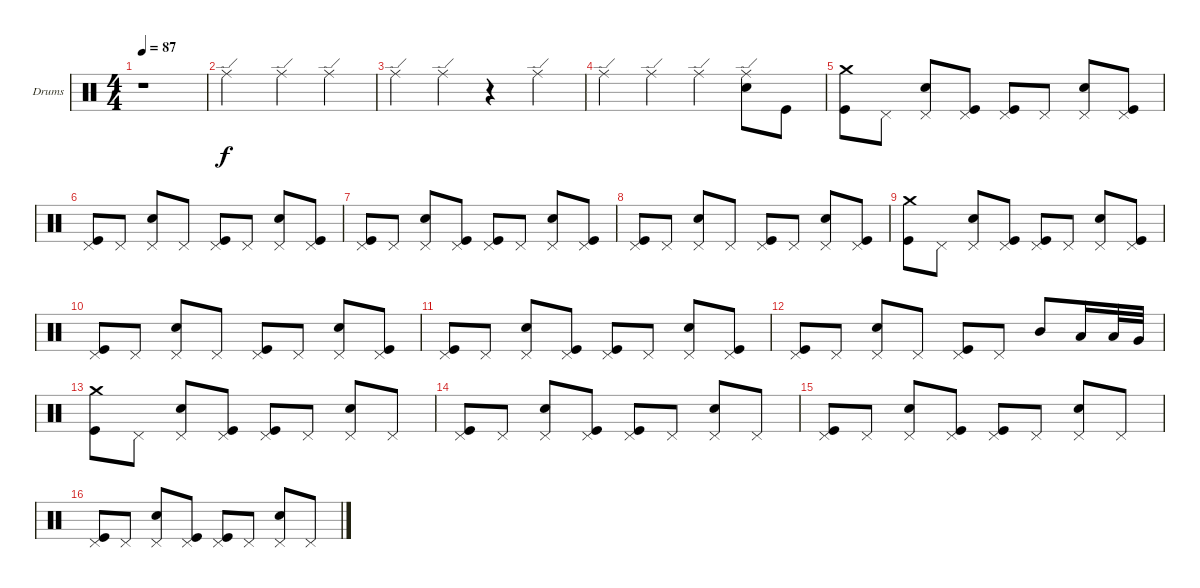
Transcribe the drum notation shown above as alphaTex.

\bracketExtendMode groupsimilarinstruments
\firstSystemTrackNameOrientation horizontal
\otherSystemsTrackNameOrientation horizontal
\track ("Drumkit" "Drums") {instrument percussion}
\staff {score}
\articulation defaults
\ts (4 4)
\tempo 87
\clef neutral
\ks c
r.1{dy f} |
"Ride (edge)".2 "Ride (edge)".4 "Ride (edge)".4 |
"Ride (edge)".4 "Ride (edge)".4 r.4 "Ride (edge)".4 |
"Ride (edge)".4 "Ride (edge)".4 "Ride (edge)".4 ("Snare (hit) 2" "Ride (edge)").8 "Kick (hit)".8 |
("Crash medium (hit)" "Kick (hit)").8 "Pedal Hi-Hat (hit)".8 ("Pedal Hi-Hat (hit)" "Snare (hit) 2").8 ("Pedal Hi-Hat (hit)" "Kick (hit)").8 ("Pedal Hi-Hat (hit)" "Kick (hit)").8 "Pedal Hi-Hat (hit)".8 ("Pedal Hi-Hat (hit)" "Snare (hit) 2").8 ("Pedal Hi-Hat (hit)" "Kick (hit)").8 |
("Pedal Hi-Hat (hit)" "Kick (hit)").8 "Pedal Hi-Hat (hit)".8 ("Pedal Hi-Hat (hit)" "Snare (hit) 2").8 "Pedal Hi-Hat (hit)".8 ("Pedal Hi-Hat (hit)" "Kick (hit)").8 "Pedal Hi-Hat (hit)".8 ("Pedal Hi-Hat (hit)" "Snare (hit) 2").8 ("Pedal Hi-Hat (hit)" "Kick (hit)").8 |
("Pedal Hi-Hat (hit)" "Kick (hit)").8 "Pedal Hi-Hat (hit)".8 ("Pedal Hi-Hat (hit)" "Snare (hit) 2").8 ("Pedal Hi-Hat (hit)" "Kick (hit)").8 ("Pedal Hi-Hat (hit)" "Kick (hit)").8 "Pedal Hi-Hat (hit)".8 ("Pedal Hi-Hat (hit)" "Snare (hit) 2").8 ("Pedal Hi-Hat (hit)" "Kick (hit)").8 |
("Pedal Hi-Hat (hit)" "Kick (hit)").8 "Pedal Hi-Hat (hit)".8 ("Pedal Hi-Hat (hit)" "Snare (hit) 2").8 "Pedal Hi-Hat (hit)".8 ("Pedal Hi-Hat (hit)" "Kick (hit)").8 "Pedal Hi-Hat (hit)".8 ("Pedal Hi-Hat (hit)" "Snare (hit) 2").8 ("Pedal Hi-Hat (hit)" "Kick (hit)").8 |
("Crash medium (hit)" "Kick (hit)").8 "Pedal Hi-Hat (hit)".8 ("Pedal Hi-Hat (hit)" "Snare (hit) 2").8 ("Pedal Hi-Hat (hit)" "Kick (hit)").8 ("Pedal Hi-Hat (hit)" "Kick (hit)").8 "Pedal Hi-Hat (hit)".8 ("Pedal Hi-Hat (hit)" "Snare (hit) 2").8 ("Pedal Hi-Hat (hit)" "Kick (hit)").8 |
("Pedal Hi-Hat (hit)" "Kick (hit)").8 "Pedal Hi-Hat (hit)".8 ("Pedal Hi-Hat (hit)" "Snare (hit) 2").8 "Pedal Hi-Hat (hit)".8 ("Pedal Hi-Hat (hit)" "Kick (hit)").8 "Pedal Hi-Hat (hit)".8 ("Pedal Hi-Hat (hit)" "Snare (hit) 2").8 ("Pedal Hi-Hat (hit)" "Kick (hit)").8 |
("Pedal Hi-Hat (hit)" "Kick (hit)").8 "Pedal Hi-Hat (hit)".8 ("Pedal Hi-Hat (hit)" "Snare (hit) 2").8 ("Pedal Hi-Hat (hit)" "Kick (hit)").8 ("Pedal Hi-Hat (hit)" "Kick (hit)").8 "Pedal Hi-Hat (hit)".8 ("Pedal Hi-Hat (hit)" "Snare (hit) 2").8 ("Pedal Hi-Hat (hit)" "Kick (hit)").8 |
("Pedal Hi-Hat (hit)" "Kick (hit)").8 "Pedal Hi-Hat (hit)".8 ("Pedal Hi-Hat (hit)" "Snare (hit) 2").8 "Pedal Hi-Hat (hit)".8 ("Pedal Hi-Hat (hit)" "Kick (hit)").8 "Pedal Hi-Hat (hit)".8 "Mid Tom (hit)".8 "Low Tom (hit)".16 "Low Tom (hit)".32 "Very Low Tom (hit)".32 |
("Crash medium (hit)" "Kick (hit)").8 "Pedal Hi-Hat (hit)".8 ("Pedal Hi-Hat (hit)" "Snare (hit) 2").8 ("Pedal Hi-Hat (hit)" "Kick (hit)").8 ("Pedal Hi-Hat (hit)" "Kick (hit)").8 "Pedal Hi-Hat (hit)".8 ("Pedal Hi-Hat (hit)" "Snare (hit) 2").8 "Pedal Hi-Hat (hit)".8 |
("Pedal Hi-Hat (hit)" "Kick (hit)").8 "Pedal Hi-Hat (hit)".8 ("Pedal Hi-Hat (hit)" "Snare (hit) 2").8 ("Pedal Hi-Hat (hit)" "Kick (hit)").8 ("Pedal Hi-Hat (hit)" "Kick (hit)").8 "Pedal Hi-Hat (hit)".8 ("Pedal Hi-Hat (hit)" "Snare (hit) 2").8 "Pedal Hi-Hat (hit)".8 |
("Pedal Hi-Hat (hit)" "Kick (hit)").8 "Pedal Hi-Hat (hit)".8 ("Pedal Hi-Hat (hit)" "Snare (hit) 2").8 ("Pedal Hi-Hat (hit)" "Kick (hit)").8 ("Pedal Hi-Hat (hit)" "Kick (hit)").8 "Pedal Hi-Hat (hit)".8 ("Pedal Hi-Hat (hit)" "Snare (hit) 2").8 "Pedal Hi-Hat (hit)".8 |
("Pedal Hi-Hat (hit)" "Kick (hit)").8 "Pedal Hi-Hat (hit)".8 ("Pedal Hi-Hat (hit)" "Snare (hit) 2").8 ("Pedal Hi-Hat (hit)" "Kick (hit)").8 ("Pedal Hi-Hat (hit)" "Kick (hit)").8 "Pedal Hi-Hat (hit)".8 ("Pedal Hi-Hat (hit)" "Snare (hit) 2").8 "Pedal Hi-Hat (hit)".8
